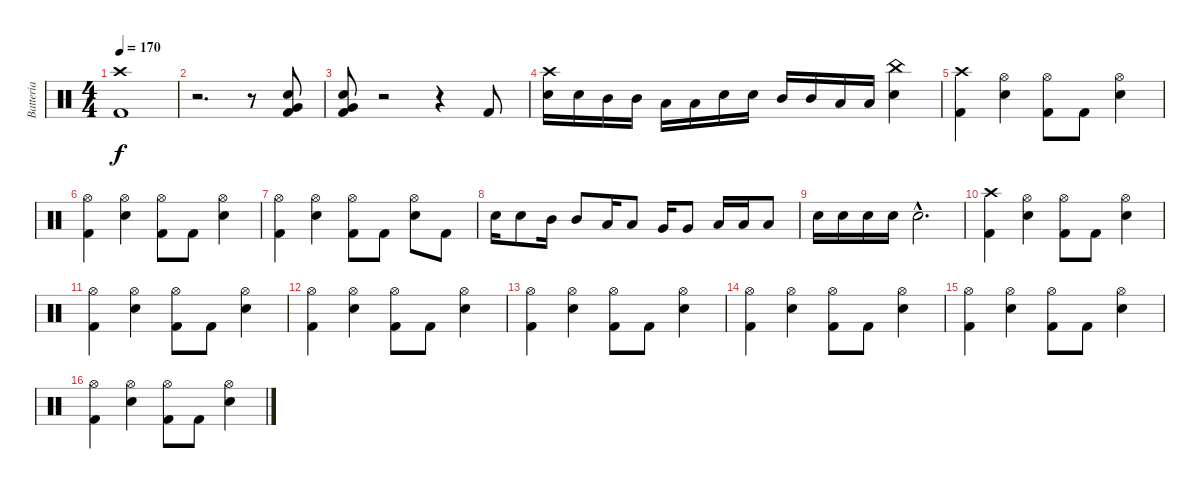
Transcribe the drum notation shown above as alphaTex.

\track ("Batteria" "Batteria") {instrument percussion}
\staff {score}
\articulation defaults
\ts (4 4)
\tempo 170
\clef neutral
\ks c
("Crash high (hit)" "Kick (hit) 2").1{dy f} |
r.2{d} r.8 ("Snare (hit) 2" "Very Low Tom (hit)" "Kick (hit) 2").8 |
("Snare (hit) 2" "Very Low Tom (hit)" "Kick (hit) 2").8 r.2 r.4 "Kick (hit) 2".8 |
("Crash high (hit)" "Snare (hit) 2").16 "Snare (hit) 2".16 "Mid Tom (hit)".16 "Mid Tom (hit)".16 "Low Tom (hit)".16 "Low Tom (hit)".16 "Snare (hit) 2".16 "Snare (hit) 2".16 "Mid Tom (hit)".16 "Mid Tom (hit)".16 "Low Tom (hit)".16 "Low Tom (hit)".16 ("China (hit)" "Snare (hit) 2").4 |
("Crash high (hit)" "Kick (hit) 2").4 ("Hi-Hat (open)" "Snare (hit) 2").4 ("Hi-Hat (open)" "Kick (hit) 2").8 "Kick (hit) 2".8 ("Hi-Hat (open)" "Snare (hit) 2").4 |
("Hi-Hat (open)" "Kick (hit) 2").4 ("Hi-Hat (open)" "Snare (hit) 2").4 ("Hi-Hat (open)" "Kick (hit) 2").8 "Kick (hit) 2".8 ("Hi-Hat (open)" "Snare (hit) 2").4 |
("Hi-Hat (open)" "Kick (hit) 2").4 ("Hi-Hat (open)" "Snare (hit) 2").4 ("Hi-Hat (open)" "Kick (hit) 2").8 "Kick (hit) 2".8 ("Hi-Hat (open)" "Snare (hit) 2").8 "Kick (hit) 2".8 |
"Snare (hit) 2".16 "Snare (hit) 2".8 "Mid Tom (hit)".16 "Mid Tom (hit)".8 "Low Tom (hit)".16 "Low Tom (hit)".8 "Very Low Tom (hit)".16 "Very Low Tom (hit)".8 "Low Floor Tom (hit)".16 "Low Floor Tom (hit)".16 "Low Floor Tom (hit)".8 |
"Snare (hit) 2".16 "Snare (hit) 2".16 "Snare (hit) 2".16 "Snare (hit) 2".16 "Snare (hit) 2"{hac}.2{d} |
("Crash high (hit)" "Kick (hit) 2").4 ("Hi-Hat (open)" "Snare (hit) 2").4 ("Hi-Hat (open)" "Kick (hit) 2").8 "Kick (hit) 2".8 ("Hi-Hat (open)" "Snare (hit) 2").4 |
("Hi-Hat (open)" "Kick (hit) 2").4 ("Hi-Hat (open)" "Snare (hit) 2").4 ("Hi-Hat (open)" "Kick (hit) 2").8 "Kick (hit) 2".8 ("Hi-Hat (open)" "Snare (hit) 2").4 |
("Hi-Hat (open)" "Kick (hit) 2").4 ("Hi-Hat (open)" "Snare (hit) 2").4 ("Hi-Hat (open)" "Kick (hit) 2").8 "Kick (hit) 2".8 ("Hi-Hat (open)" "Snare (hit) 2").4 |
("Hi-Hat (open)" "Kick (hit) 2").4 ("Hi-Hat (open)" "Snare (hit) 2").4 ("Hi-Hat (open)" "Kick (hit) 2").8 "Kick (hit) 2".8 ("Hi-Hat (open)" "Snare (hit) 2").4 |
("Hi-Hat (open)" "Kick (hit) 2").4 ("Hi-Hat (open)" "Snare (hit) 2").4 ("Hi-Hat (open)" "Kick (hit) 2").8 "Kick (hit) 2".8 ("Hi-Hat (open)" "Snare (hit) 2").4 |
("Hi-Hat (open)" "Kick (hit) 2").4 ("Hi-Hat (open)" "Snare (hit) 2").4 ("Hi-Hat (open)" "Kick (hit) 2").8 "Kick (hit) 2".8 ("Hi-Hat (open)" "Snare (hit) 2").4 |
("Hi-Hat (open)" "Kick (hit) 2").4 ("Hi-Hat (open)" "Snare (hit) 2").4 ("Hi-Hat (open)" "Kick (hit) 2").8 "Kick (hit) 2".8 ("Hi-Hat (open)" "Snare (hit) 2").4
